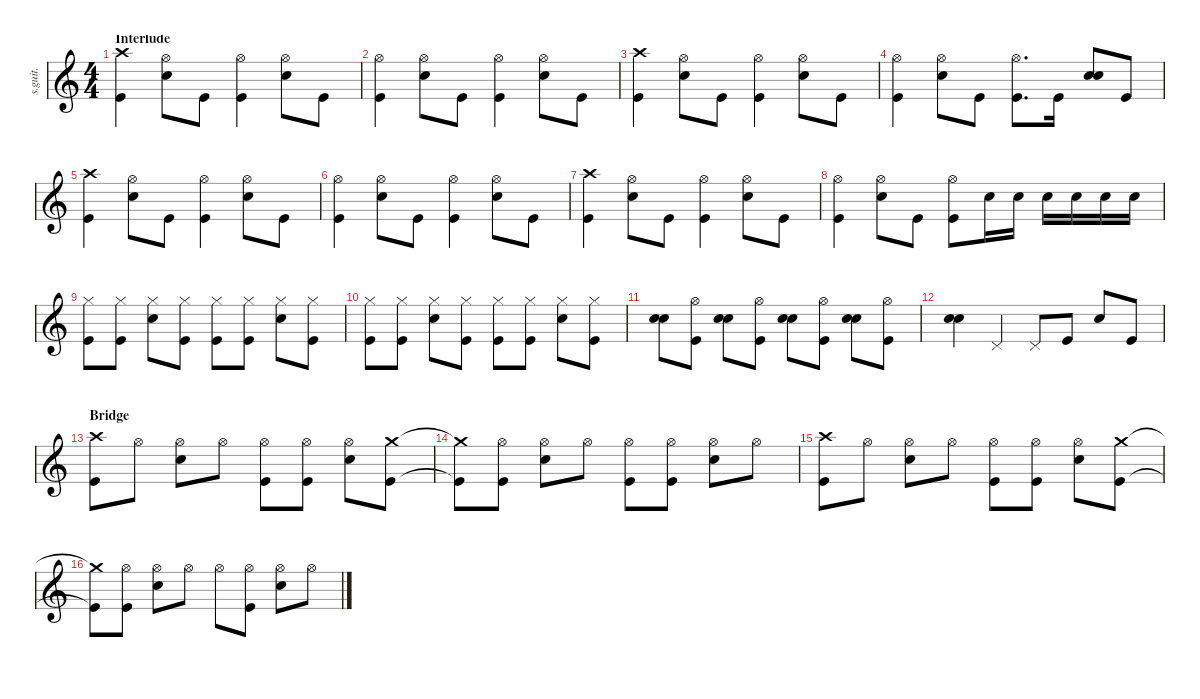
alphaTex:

\defaultSystemsLayout 4
\hideDynamics
\bracketExtendMode nobrackets
\track ("Tre Cool" "s.guit.") {instrument percussion}
\staff {score}
\articulation defaults
\ts (4 4)
\section ("" "Interlude")
\tempo (175 hide)
\clef g2
\ks c
("Crash high (hit)" "Kick (hit)").4{lyrics (0 "") lyrics (1 "") lyrics (2 "") lyrics (3 "") lyrics (4 "") dy fff} ("Hi-Hat (open)" "Snare (hit) 2").8{lyrics (0 "") lyrics (1 "") lyrics (2 "") lyrics (3 "") lyrics (4 "")} "Kick (hit)".8{lyrics (0 "") lyrics (1 "") lyrics (2 "") lyrics (3 "") lyrics (4 "") dy ff} ("Hi-Hat (open)" "Kick (hit)").4{lyrics (0 "") lyrics (1 "") lyrics (2 "") lyrics (3 "") lyrics (4 "")} ("Hi-Hat (open)" "Snare (hit) 2").8{lyrics (0 "") lyrics (1 "") lyrics (2 "") lyrics (3 "") lyrics (4 "") dy f} "Kick (hit)".8{lyrics (0 "") lyrics (1 "") lyrics (2 "") lyrics (3 "") lyrics (4 "") dy ff} |
("Hi-Hat (open)" "Kick (hit)").4{lyrics (0 "") lyrics (1 "") lyrics (2 "") lyrics (3 "") lyrics (4 "")} ("Hi-Hat (open)" "Snare (hit) 2").8{lyrics (0 "") lyrics (1 "") lyrics (2 "") lyrics (3 "") lyrics (4 "") dy f} "Kick (hit)".8{lyrics (0 "") lyrics (1 "") lyrics (2 "") lyrics (3 "") lyrics (4 "") dy ff} ("Hi-Hat (open)" "Kick (hit)").4{lyrics (0 "") lyrics (1 "") lyrics (2 "") lyrics (3 "") lyrics (4 "")} ("Hi-Hat (open)" "Snare (hit) 2").8{lyrics (0 "") lyrics (1 "") lyrics (2 "") lyrics (3 "") lyrics (4 "") dy f} "Kick (hit)".8{lyrics (0 "") lyrics (1 "") lyrics (2 "") lyrics (3 "") lyrics (4 "") dy ff} |
("Crash high (hit)" "Kick (hit)").4{lyrics (0 "") lyrics (1 "") lyrics (2 "") lyrics (3 "") lyrics (4 "")} ("Hi-Hat (open)" "Snare (hit) 2").8{lyrics (0 "") lyrics (1 "") lyrics (2 "") lyrics (3 "") lyrics (4 "") dy f} "Kick (hit)".8{lyrics (0 "") lyrics (1 "") lyrics (2 "") lyrics (3 "") lyrics (4 "") dy ff} ("Hi-Hat (open)" "Kick (hit)").4{lyrics (0 "") lyrics (1 "") lyrics (2 "") lyrics (3 "") lyrics (4 "")} ("Hi-Hat (open)" "Snare (hit) 2").8{lyrics (0 "") lyrics (1 "") lyrics (2 "") lyrics (3 "") lyrics (4 "") dy f} "Kick (hit)".8{lyrics (0 "") lyrics (1 "") lyrics (2 "") lyrics (3 "") lyrics (4 "") dy ff} |
("Hi-Hat (open)" "Kick (hit)").4{lyrics (0 "") lyrics (1 "") lyrics (2 "") lyrics (3 "") lyrics (4 "")} ("Hi-Hat (open)" "Snare (hit) 2").8{lyrics (0 "") lyrics (1 "") lyrics (2 "") lyrics (3 "") lyrics (4 "") dy f} "Kick (hit)".8{lyrics (0 "") lyrics (1 "") lyrics (2 "") lyrics (3 "") lyrics (4 "") dy ff} ("Hi-Hat (open)" "Kick (hit)").8{d lyrics (0 "") lyrics (1 "") lyrics (2 "") lyrics (3 "") lyrics (4 "")} "Kick (hit)".16{lyrics (0 "") lyrics (1 "") lyrics (2 "") lyrics (3 "") lyrics (4 "")} ("Snare (hit) 2" "Snare (hit) 2").8{bd 30 lyrics (0 "") lyrics (1 "") lyrics (2 "") lyrics (3 "") lyrics (4 "") dy f} "Kick (hit)".8{lyrics (0 "") lyrics (1 "") lyrics (2 "") lyrics (3 "") lyrics (4 "") dy ff} |
("Crash high (hit)" "Kick (hit)").4{lyrics (0 "") lyrics (1 "") lyrics (2 "") lyrics (3 "") lyrics (4 "")} ("Hi-Hat (open)" "Snare (hit) 2").8{lyrics (0 "") lyrics (1 "") lyrics (2 "") lyrics (3 "") lyrics (4 "") dy f} "Kick (hit)".8{lyrics (0 "") lyrics (1 "") lyrics (2 "") lyrics (3 "") lyrics (4 "") dy ff} ("Hi-Hat (open)" "Kick (hit)").4{lyrics (0 "") lyrics (1 "") lyrics (2 "") lyrics (3 "") lyrics (4 "")} ("Hi-Hat (open)" "Snare (hit) 2").8{lyrics (0 "") lyrics (1 "") lyrics (2 "") lyrics (3 "") lyrics (4 "") dy f} "Kick (hit)".8{lyrics (0 "") lyrics (1 "") lyrics (2 "") lyrics (3 "") lyrics (4 "") dy ff} |
("Hi-Hat (open)" "Kick (hit)").4{lyrics (0 "") lyrics (1 "") lyrics (2 "") lyrics (3 "") lyrics (4 "")} ("Hi-Hat (open)" "Snare (hit) 2").8{lyrics (0 "") lyrics (1 "") lyrics (2 "") lyrics (3 "") lyrics (4 "") dy f} "Kick (hit)".8{lyrics (0 "") lyrics (1 "") lyrics (2 "") lyrics (3 "") lyrics (4 "") dy ff} ("Hi-Hat (open)" "Kick (hit)").4{lyrics (0 "") lyrics (1 "") lyrics (2 "") lyrics (3 "") lyrics (4 "")} ("Hi-Hat (open)" "Snare (hit) 2").8{lyrics (0 "") lyrics (1 "") lyrics (2 "") lyrics (3 "") lyrics (4 "") dy f} "Kick (hit)".8{lyrics (0 "") lyrics (1 "") lyrics (2 "") lyrics (3 "") lyrics (4 "") dy ff} |
("Crash high (hit)" "Kick (hit)").4{lyrics (0 "") lyrics (1 "") lyrics (2 "") lyrics (3 "") lyrics (4 "")} ("Hi-Hat (open)" "Snare (hit) 2").8{lyrics (0 "") lyrics (1 "") lyrics (2 "") lyrics (3 "") lyrics (4 "") dy f} "Kick (hit)".8{lyrics (0 "") lyrics (1 "") lyrics (2 "") lyrics (3 "") lyrics (4 "") dy ff} ("Hi-Hat (open)" "Kick (hit)").4{lyrics (0 "") lyrics (1 "") lyrics (2 "") lyrics (3 "") lyrics (4 "")} ("Hi-Hat (open)" "Snare (hit) 2").8{lyrics (0 "") lyrics (1 "") lyrics (2 "") lyrics (3 "") lyrics (4 "") dy f} "Kick (hit)".8{lyrics (0 "") lyrics (1 "") lyrics (2 "") lyrics (3 "") lyrics (4 "") dy ff} |
("Hi-Hat (open)" "Kick (hit)").4{lyrics (0 "") lyrics (1 "") lyrics (2 "") lyrics (3 "") lyrics (4 "")} ("Hi-Hat (open)" "Snare (hit) 2").8{lyrics (0 "") lyrics (1 "") lyrics (2 "") lyrics (3 "") lyrics (4 "") dy f} "Kick (hit)".8{lyrics (0 "") lyrics (1 "") lyrics (2 "") lyrics (3 "") lyrics (4 "") dy ff} ("Hi-Hat (open)" "Kick (hit)").8{lyrics (0 "") lyrics (1 "") lyrics (2 "") lyrics (3 "") lyrics (4 "")} "Snare (hit) 2".16{lyrics (0 "") lyrics (1 "") lyrics (2 "") lyrics (3 "") lyrics (4 "") dy f} "Snare (hit) 2".16{lyrics (0 "") lyrics (1 "") lyrics (2 "") lyrics (3 "") lyrics (4 "")} "Snare (hit) 2".16{lyrics (0 "") lyrics (1 "") lyrics (2 "") lyrics (3 "") lyrics (4 "")} "Snare (hit) 2".16{lyrics (0 "") lyrics (1 "") lyrics (2 "") lyrics (3 "") lyrics (4 "")} "Snare (hit) 2".16{lyrics (0 "") lyrics (1 "") lyrics (2 "") lyrics (3 "") lyrics (4 "")} "Snare (hit) 2".16{lyrics (0 "") lyrics (1 "") lyrics (2 "") lyrics (3 "") lyrics (4 "")} |
("Hi-Hat (closed)" "Kick (hit)").8{lyrics (0 "") lyrics (1 "") lyrics (2 "") lyrics (3 "") lyrics (4 "")} ("Hi-Hat (closed)" "Kick (hit)").8{lyrics (0 "") lyrics (1 "") lyrics (2 "") lyrics (3 "") lyrics (4 "")} ("Hi-Hat (closed)" "Snare (hit) 2").8{lyrics (0 "") lyrics (1 "") lyrics (2 "") lyrics (3 "") lyrics (4 "")} ("Hi-Hat (closed)" "Kick (hit)").8{lyrics (0 "") lyrics (1 "") lyrics (2 "") lyrics (3 "") lyrics (4 "")} ("Hi-Hat (closed)" "Kick (hit)").8{lyrics (0 "") lyrics (1 "") lyrics (2 "") lyrics (3 "") lyrics (4 "")} ("Hi-Hat (closed)" "Kick (hit)").8{lyrics (0 "") lyrics (1 "") lyrics (2 "") lyrics (3 "") lyrics (4 "")} ("Hi-Hat (closed)" "Snare (hit) 2").8{lyrics (0 "") lyrics (1 "") lyrics (2 "") lyrics (3 "") lyrics (4 "")} ("Hi-Hat (closed)" "Kick (hit)").8{lyrics (0 "") lyrics (1 "") lyrics (2 "") lyrics (3 "") lyrics (4 "")} |
("Hi-Hat (closed)" "Kick (hit)").8{lyrics (0 "") lyrics (1 "") lyrics (2 "") lyrics (3 "") lyrics (4 "")} ("Hi-Hat (closed)" "Kick (hit)").8{lyrics (0 "") lyrics (1 "") lyrics (2 "") lyrics (3 "") lyrics (4 "")} ("Hi-Hat (closed)" "Snare (hit) 2").8{lyrics (0 "") lyrics (1 "") lyrics (2 "") lyrics (3 "") lyrics (4 "")} ("Hi-Hat (closed)" "Kick (hit)").8{lyrics (0 "") lyrics (1 "") lyrics (2 "") lyrics (3 "") lyrics (4 "")} ("Hi-Hat (closed)" "Kick (hit)").8{lyrics (0 "") lyrics (1 "") lyrics (2 "") lyrics (3 "") lyrics (4 "")} ("Hi-Hat (closed)" "Kick (hit)").8{lyrics (0 "") lyrics (1 "") lyrics (2 "") lyrics (3 "") lyrics (4 "")} ("Hi-Hat (closed)" "Snare (hit) 2").8{lyrics (0 "") lyrics (1 "") lyrics (2 "") lyrics (3 "") lyrics (4 "")} ("Hi-Hat (closed)" "Kick (hit)").8{lyrics (0 "") lyrics (1 "") lyrics (2 "") lyrics (3 "") lyrics (4 "")} |
("Snare (hit) 2" "Snare (hit) 2").8{bd 30 lyrics (0 "") lyrics (1 "") lyrics (2 "") lyrics (3 "") lyrics (4 "")} ("Hi-Hat (open)" "Kick (hit)").8{lyrics (0 "") lyrics (1 "") lyrics (2 "") lyrics (3 "") lyrics (4 "")} ("Snare (hit) 2" "Snare (hit) 2").8{bd 30 lyrics (0 "") lyrics (1 "") lyrics (2 "") lyrics (3 "") lyrics (4 "")} ("Hi-Hat (open)" "Kick (hit)").8{lyrics (0 "") lyrics (1 "") lyrics (2 "") lyrics (3 "") lyrics (4 "")} ("Snare (hit) 2" "Snare (hit) 2").8{bd 30 lyrics (0 "") lyrics (1 "") lyrics (2 "") lyrics (3 "") lyrics (4 "")} ("Hi-Hat (open)" "Kick (hit)").8{lyrics (0 "") lyrics (1 "") lyrics (2 "") lyrics (3 "") lyrics (4 "")} ("Snare (hit) 2" "Snare (hit) 2").8{bd 30 lyrics (0 "") lyrics (1 "") lyrics (2 "") lyrics (3 "") lyrics (4 "")} ("Hi-Hat (open)" "Kick (hit)").8{lyrics (0 "") lyrics (1 "") lyrics (2 "") lyrics (3 "") lyrics (4 "")} |
("Snare (hit) 2" "Snare (hit) 2").4{bd 30 lyrics (0 "") lyrics (1 "") lyrics (2 "") lyrics (3 "") lyrics (4 "")} "Pedal Hi-Hat (hit)".4{lyrics (0 "") lyrics (1 "") lyrics (2 "") lyrics (3 "") lyrics (4 "")} "Pedal Hi-Hat (hit)".8{lyrics (0 "") lyrics (1 "") lyrics (2 "") lyrics (3 "") lyrics (4 "")} "Kick (hit)".8{lyrics (0 "") lyrics (1 "") lyrics (2 "") lyrics (3 "") lyrics (4 "") dy ff} "Snare (hit) 2".8{lyrics (0 "") lyrics (1 "") lyrics (2 "") lyrics (3 "") lyrics (4 "") dy f} "Kick (hit)".8{lyrics (0 "") lyrics (1 "") lyrics (2 "") lyrics (3 "") lyrics (4 "") dy ff} |
\section ("" "Bridge")
("Crash high (hit)" "Kick (hit)").8{lyrics (0 "") lyrics (1 "") lyrics (2 "") lyrics (3 "") lyrics (4 "")} "Hi-Hat (open)".8{lyrics (0 "") lyrics (1 "") lyrics (2 "") lyrics (3 "") lyrics (4 "") dy f} ("Hi-Hat (open)" "Snare (hit) 2").8{lyrics (0 "") lyrics (1 "") lyrics (2 "") lyrics (3 "") lyrics (4 "")} "Hi-Hat (open)".8{lyrics (0 "") lyrics (1 "") lyrics (2 "") lyrics (3 "") lyrics (4 "")} ("Hi-Hat (open)" "Kick (hit)").8{lyrics (0 "") lyrics (1 "") lyrics (2 "") lyrics (3 "") lyrics (4 "")} ("Hi-Hat (open)" "Kick (hit)").8{lyrics (0 "") lyrics (1 "") lyrics (2 "") lyrics (3 "") lyrics (4 "")} ("Hi-Hat (open)" "Snare (hit) 2").8{lyrics (0 "") lyrics (1 "") lyrics (2 "") lyrics (3 "") lyrics (4 "")} ("Crash medium (hit)" "Kick (hit)").8{lyrics (0 "") lyrics (1 "") lyrics (2 "") lyrics (3 "") lyrics (4 "")} |
("Crash medium (hit)"{t} "Kick (hit)"{t}).8{lyrics (0 "") lyrics (1 "") lyrics (2 "") lyrics (3 "") lyrics (4 "")} ("Hi-Hat (open)" "Kick (hit)").8{lyrics (0 "") lyrics (1 "") lyrics (2 "") lyrics (3 "") lyrics (4 "")} ("Hi-Hat (open)" "Snare (hit) 2").8{lyrics (0 "") lyrics (1 "") lyrics (2 "") lyrics (3 "") lyrics (4 "")} "Hi-Hat (open)".8{lyrics (0 "") lyrics (1 "") lyrics (2 "") lyrics (3 "") lyrics (4 "")} ("Hi-Hat (open)" "Kick (hit)").8{lyrics (0 "") lyrics (1 "") lyrics (2 "") lyrics (3 "") lyrics (4 "")} ("Hi-Hat (open)" "Kick (hit)").8{lyrics (0 "") lyrics (1 "") lyrics (2 "") lyrics (3 "") lyrics (4 "")} ("Hi-Hat (open)" "Snare (hit) 2").8{lyrics (0 "") lyrics (1 "") lyrics (2 "") lyrics (3 "") lyrics (4 "")} "Hi-Hat (open)".8{lyrics (0 "") lyrics (1 "") lyrics (2 "") lyrics (3 "") lyrics (4 "")} |
("Crash high (hit)" "Kick (hit)").8{lyrics (0 "") lyrics (1 "") lyrics (2 "") lyrics (3 "") lyrics (4 "")} "Hi-Hat (open)".8{lyrics (0 "") lyrics (1 "") lyrics (2 "") lyrics (3 "") lyrics (4 "")} ("Hi-Hat (open)" "Snare (hit) 2").8{lyrics (0 "") lyrics (1 "") lyrics (2 "") lyrics (3 "") lyrics (4 "")} "Hi-Hat (open)".8{lyrics (0 "") lyrics (1 "") lyrics (2 "") lyrics (3 "") lyrics (4 "")} ("Hi-Hat (open)" "Kick (hit)").8{lyrics (0 "") lyrics (1 "") lyrics (2 "") lyrics (3 "") lyrics (4 "")} ("Hi-Hat (open)" "Kick (hit)").8{lyrics (0 "") lyrics (1 "") lyrics (2 "") lyrics (3 "") lyrics (4 "")} ("Hi-Hat (open)" "Snare (hit) 2").8{lyrics (0 "") lyrics (1 "") lyrics (2 "") lyrics (3 "") lyrics (4 "")} ("Crash medium (hit)" "Kick (hit)").8{lyrics (0 "") lyrics (1 "") lyrics (2 "") lyrics (3 "") lyrics (4 "")} |
("Crash medium (hit)"{t} "Kick (hit)"{t}).8{lyrics (0 "") lyrics (1 "") lyrics (2 "") lyrics (3 "") lyrics (4 "")} ("Hi-Hat (open)" "Kick (hit)").8{lyrics (0 "") lyrics (1 "") lyrics (2 "") lyrics (3 "") lyrics (4 "")} ("Hi-Hat (open)" "Snare (hit) 2").8{lyrics (0 "") lyrics (1 "") lyrics (2 "") lyrics (3 "") lyrics (4 "")} "Hi-Hat (open)".8{lyrics (0 "") lyrics (1 "") lyrics (2 "") lyrics (3 "") lyrics (4 "")} "Hi-Hat (open)".8{lyrics (0 "") lyrics (1 "") lyrics (2 "") lyrics (3 "") lyrics (4 "")} ("Hi-Hat (open)" "Kick (hit)").8{lyrics (0 "") lyrics (1 "") lyrics (2 "") lyrics (3 "") lyrics (4 "")} ("Hi-Hat (open)" "Snare (hit) 2").8{lyrics (0 "") lyrics (1 "") lyrics (2 "") lyrics (3 "") lyrics (4 "")} "Hi-Hat (open)".8{lyrics (0 "") lyrics (1 "") lyrics (2 "") lyrics (3 "") lyrics (4 "")}
